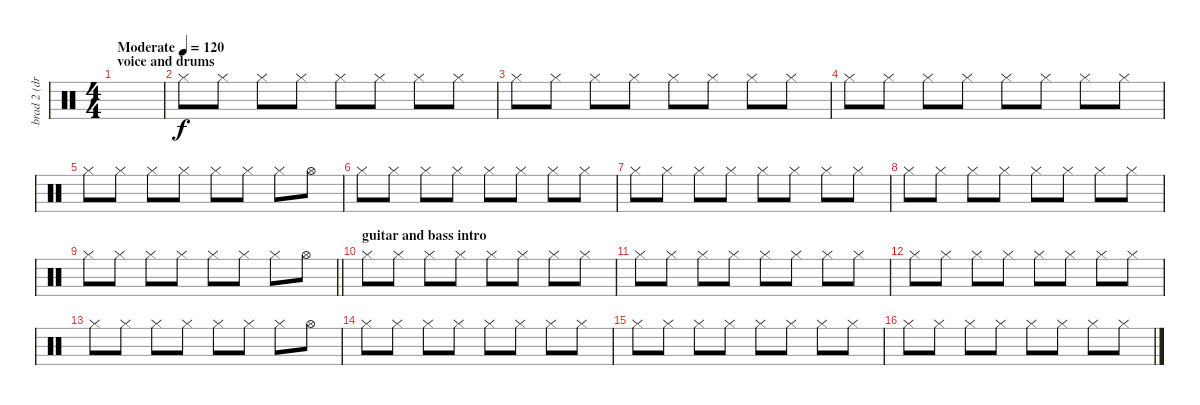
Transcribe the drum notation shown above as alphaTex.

\track ("brad 2 (drums hit hat)" "brad 2 (dr") {instrument percussion}
\staff {score}
\articulation defaults
\ts (4 4)
\section ("" "voice and drums")
\tempo (120 "Moderate")
\clef neutral
\ks c
|
"Hi-Hat (closed)".8 "Hi-Hat (closed)".8 "Hi-Hat (closed)".8 "Hi-Hat (closed)".8 "Hi-Hat (closed)".8 "Hi-Hat (closed)".8 "Hi-Hat (closed)".8 "Hi-Hat (closed)".8 |
"Hi-Hat (closed)".8 "Hi-Hat (closed)".8 "Hi-Hat (closed)".8 "Hi-Hat (closed)".8 "Hi-Hat (closed)".8 "Hi-Hat (closed)".8 "Hi-Hat (closed)".8 "Hi-Hat (closed)".8 |
"Hi-Hat (closed)".8 "Hi-Hat (closed)".8 "Hi-Hat (closed)".8 "Hi-Hat (closed)".8 "Hi-Hat (closed)".8 "Hi-Hat (closed)".8 "Hi-Hat (closed)".8 "Hi-Hat (closed)".8 |
"Hi-Hat (closed)".8 "Hi-Hat (closed)".8 "Hi-Hat (closed)".8 "Hi-Hat (closed)".8 "Hi-Hat (closed)".8 "Hi-Hat (closed)".8 "Hi-Hat (closed)".8 "Hi-Hat (open)".8 |
"Hi-Hat (closed)".8 "Hi-Hat (closed)".8 "Hi-Hat (closed)".8 "Hi-Hat (closed)".8 "Hi-Hat (closed)".8 "Hi-Hat (closed)".8 "Hi-Hat (closed)".8 "Hi-Hat (closed)".8 |
"Hi-Hat (closed)".8 "Hi-Hat (closed)".8 "Hi-Hat (closed)".8 "Hi-Hat (closed)".8 "Hi-Hat (closed)".8 "Hi-Hat (closed)".8 "Hi-Hat (closed)".8 "Hi-Hat (closed)".8 |
"Hi-Hat (closed)".8 "Hi-Hat (closed)".8 "Hi-Hat (closed)".8 "Hi-Hat (closed)".8 "Hi-Hat (closed)".8 "Hi-Hat (closed)".8 "Hi-Hat (closed)".8 "Hi-Hat (closed)".8 |
\barLineRight lightlight "Hi-Hat (closed)".8 "Hi-Hat (closed)".8 "Hi-Hat (closed)".8 "Hi-Hat (closed)".8 "Hi-Hat (closed)".8 "Hi-Hat (closed)".8 "Hi-Hat (closed)".8 "Hi-Hat (open)".8
|
\section ("" "guitar and bass intro")
"Hi-Hat (closed)".8 "Hi-Hat (closed)".8 "Hi-Hat (closed)".8 "Hi-Hat (closed)".8 "Hi-Hat (closed)".8 "Hi-Hat (closed)".8 "Hi-Hat (closed)".8 "Hi-Hat (closed)".8 |
"Hi-Hat (closed)".8 "Hi-Hat (closed)".8 "Hi-Hat (closed)".8 "Hi-Hat (closed)".8 "Hi-Hat (closed)".8 "Hi-Hat (closed)".8 "Hi-Hat (closed)".8 "Hi-Hat (closed)".8 |
"Hi-Hat (closed)".8 "Hi-Hat (closed)".8 "Hi-Hat (closed)".8 "Hi-Hat (closed)".8 "Hi-Hat (closed)".8 "Hi-Hat (closed)".8 "Hi-Hat (closed)".8 "Hi-Hat (closed)".8 |
"Hi-Hat (closed)".8 "Hi-Hat (closed)".8 "Hi-Hat (closed)".8 "Hi-Hat (closed)".8 "Hi-Hat (closed)".8 "Hi-Hat (closed)".8 "Hi-Hat (closed)".8 "Hi-Hat (open)".8 |
"Hi-Hat (closed)".8 "Hi-Hat (closed)".8 "Hi-Hat (closed)".8 "Hi-Hat (closed)".8 "Hi-Hat (closed)".8 "Hi-Hat (closed)".8 "Hi-Hat (closed)".8 "Hi-Hat (closed)".8 |
"Hi-Hat (closed)".8 "Hi-Hat (closed)".8 "Hi-Hat (closed)".8 "Hi-Hat (closed)".8 "Hi-Hat (closed)".8 "Hi-Hat (closed)".8 "Hi-Hat (closed)".8 "Hi-Hat (closed)".8 |
"Hi-Hat (closed)".8 "Hi-Hat (closed)".8 "Hi-Hat (closed)".8 "Hi-Hat (closed)".8 "Hi-Hat (closed)".8 "Hi-Hat (closed)".8 "Hi-Hat (closed)".8 "Hi-Hat (closed)".8
